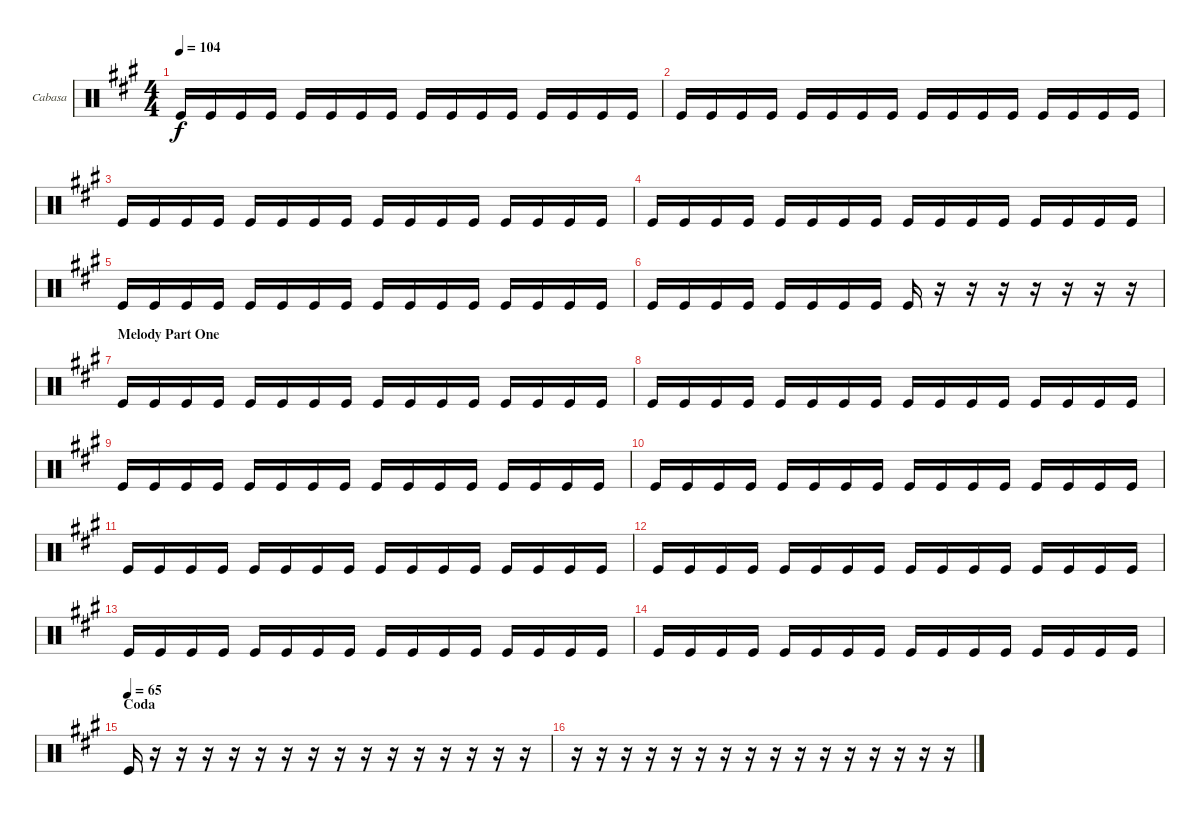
\bracketExtendMode groupsimilarinstruments
\firstSystemTrackNameOrientation horizontal
\otherSystemsTrackNameOrientation horizontal
\track ("Cabasa" "Cabasa") {instrument percussion}
\staff {score}
\articulation defaults
\ts (4 4)
\tempo 104
\clef neutral
\ks a "Kick (hit)".16{dy f} "Kick (hit)".16 "Kick (hit)".16 "Kick (hit)".16 "Kick (hit)".16 "Kick (hit)".16 "Kick (hit)".16 "Kick (hit)".16 "Kick (hit)".16 "Kick (hit)".16 "Kick (hit)".16 "Kick (hit)".16 "Kick (hit)".16 "Kick (hit)".16 "Kick (hit)".16 "Kick (hit)".16
|
"Kick (hit)".16 "Kick (hit)".16 "Kick (hit)".16 "Kick (hit)".16 "Kick (hit)".16 "Kick (hit)".16 "Kick (hit)".16 "Kick (hit)".16 "Kick (hit)".16 "Kick (hit)".16 "Kick (hit)".16 "Kick (hit)".16 "Kick (hit)".16 "Kick (hit)".16 "Kick (hit)".16 "Kick (hit)".16 |
"Kick (hit)".16 "Kick (hit)".16 "Kick (hit)".16 "Kick (hit)".16 "Kick (hit)".16 "Kick (hit)".16 "Kick (hit)".16 "Kick (hit)".16 "Kick (hit)".16 "Kick (hit)".16 "Kick (hit)".16 "Kick (hit)".16 "Kick (hit)".16 "Kick (hit)".16 "Kick (hit)".16 "Kick (hit)".16 |
"Kick (hit)".16 "Kick (hit)".16 "Kick (hit)".16 "Kick (hit)".16 "Kick (hit)".16 "Kick (hit)".16 "Kick (hit)".16 "Kick (hit)".16 "Kick (hit)".16 "Kick (hit)".16 "Kick (hit)".16 "Kick (hit)".16 "Kick (hit)".16 "Kick (hit)".16 "Kick (hit)".16 "Kick (hit)".16 |
"Kick (hit)".16 "Kick (hit)".16 "Kick (hit)".16 "Kick (hit)".16 "Kick (hit)".16 "Kick (hit)".16 "Kick (hit)".16 "Kick (hit)".16 "Kick (hit)".16 "Kick (hit)".16 "Kick (hit)".16 "Kick (hit)".16 "Kick (hit)".16 "Kick (hit)".16 "Kick (hit)".16 "Kick (hit)".16 |
"Kick (hit)".16 "Kick (hit)".16 "Kick (hit)".16 "Kick (hit)".16 "Kick (hit)".16 "Kick (hit)".16 "Kick (hit)".16 "Kick (hit)".16 "Kick (hit)".16 r.16 r.16 r.16 r.16 r.16 r.16 r.16 |
\section ("" "Melody Part One")
"Kick (hit)".16 "Kick (hit)".16 "Kick (hit)".16 "Kick (hit)".16 "Kick (hit)".16 "Kick (hit)".16 "Kick (hit)".16 "Kick (hit)".16 "Kick (hit)".16 "Kick (hit)".16 "Kick (hit)".16 "Kick (hit)".16 "Kick (hit)".16 "Kick (hit)".16 "Kick (hit)".16 "Kick (hit)".16 |
"Kick (hit)".16 "Kick (hit)".16 "Kick (hit)".16 "Kick (hit)".16 "Kick (hit)".16 "Kick (hit)".16 "Kick (hit)".16 "Kick (hit)".16 "Kick (hit)".16 "Kick (hit)".16 "Kick (hit)".16 "Kick (hit)".16 "Kick (hit)".16 "Kick (hit)".16 "Kick (hit)".16 "Kick (hit)".16 |
"Kick (hit)".16 "Kick (hit)".16 "Kick (hit)".16 "Kick (hit)".16 "Kick (hit)".16 "Kick (hit)".16 "Kick (hit)".16 "Kick (hit)".16 "Kick (hit)".16 "Kick (hit)".16 "Kick (hit)".16 "Kick (hit)".16 "Kick (hit)".16 "Kick (hit)".16 "Kick (hit)".16 "Kick (hit)".16 |
"Kick (hit)".16 "Kick (hit)".16 "Kick (hit)".16 "Kick (hit)".16 "Kick (hit)".16 "Kick (hit)".16 "Kick (hit)".16 "Kick (hit)".16 "Kick (hit)".16 "Kick (hit)".16 "Kick (hit)".16 "Kick (hit)".16 "Kick (hit)".16 "Kick (hit)".16 "Kick (hit)".16 "Kick (hit)".16 |
"Kick (hit)".16 "Kick (hit)".16 "Kick (hit)".16 "Kick (hit)".16 "Kick (hit)".16 "Kick (hit)".16 "Kick (hit)".16 "Kick (hit)".16 "Kick (hit)".16 "Kick (hit)".16 "Kick (hit)".16 "Kick (hit)".16 "Kick (hit)".16 "Kick (hit)".16 "Kick (hit)".16 "Kick (hit)".16 |
"Kick (hit)".16 "Kick (hit)".16 "Kick (hit)".16 "Kick (hit)".16 "Kick (hit)".16 "Kick (hit)".16 "Kick (hit)".16 "Kick (hit)".16 "Kick (hit)".16 "Kick (hit)".16 "Kick (hit)".16 "Kick (hit)".16 "Kick (hit)".16 "Kick (hit)".16 "Kick (hit)".16 "Kick (hit)".16 |
"Kick (hit)".16 "Kick (hit)".16 "Kick (hit)".16 "Kick (hit)".16 "Kick (hit)".16 "Kick (hit)".16 "Kick (hit)".16 "Kick (hit)".16 "Kick (hit)".16 "Kick (hit)".16 "Kick (hit)".16 "Kick (hit)".16 "Kick (hit)".16 "Kick (hit)".16 "Kick (hit)".16 "Kick (hit)".16 |
"Kick (hit)".16 "Kick (hit)".16 "Kick (hit)".16 "Kick (hit)".16 "Kick (hit)".16 "Kick (hit)".16 "Kick (hit)".16 "Kick (hit)".16 "Kick (hit)".16 "Kick (hit)".16 "Kick (hit)".16 "Kick (hit)".16 "Kick (hit)".16 "Kick (hit)".16 "Kick (hit)".16 "Kick (hit)".16 |
\section ("" "Coda")
\tempo (65)
"Kick (hit)".16 r.16 r.16 r.16 r.16 r.16 r.16 r.16 r.16 r.16 r.16 r.16 r.16 r.16 r.16 r.16 |
r.16 r.16 r.16 r.16 r.16 r.16 r.16 r.16 r.16 r.16 r.16 r.16 r.16 r.16 r.16 r.16
